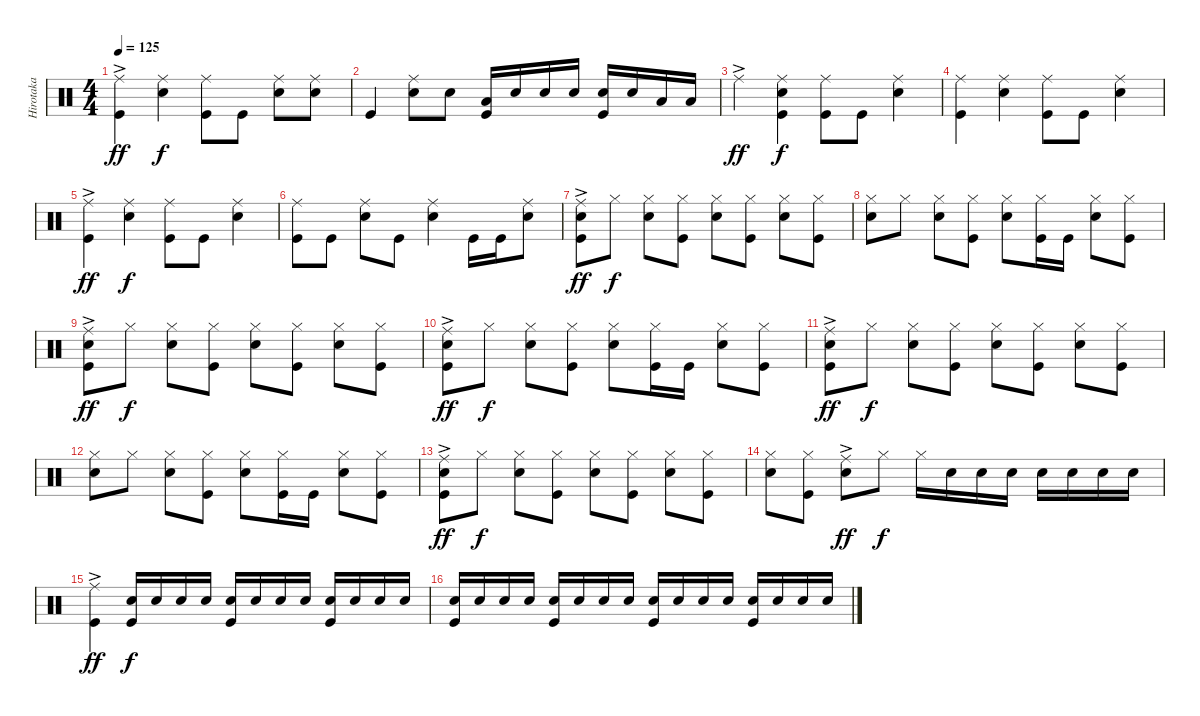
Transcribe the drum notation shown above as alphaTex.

\track ("Hirotaka" "Hirotaka") {instrument percussion}
\staff {score}
\articulation defaults
\ts (4 4)
\tempo 125
\clef neutral
\ks c
("Ride (middle)"{ac} "Kick (hit)").4{dy ff} ("Ride (middle)" "Snare (hit) 2").4{dy f} ("Ride (middle)" "Kick (hit)").8 "Kick (hit)".8 ("Ride (middle)" "Snare (hit) 2").8 ("Ride (middle)" "Snare (hit) 2").8 |
"Kick (hit)".4 ("Ride (middle)" "Snare (hit) 2").8 "Snare (hit) 2".8 ("Low Tom (hit)" "Kick (hit)").16 "Snare (hit) 2".16 "Snare (hit) 2".16 "Snare (hit) 2".16 ("Snare (hit) 2" "Kick (hit)").16 "Snare (hit) 2".16 "Low Tom (hit)".16 "Low Tom (hit)".16 |
"Ride (middle)"{ac}.4{dy ff} ("Ride (middle)" "Snare (hit) 2" "Kick (hit)").4{dy f} ("Ride (middle)" "Kick (hit)").8 "Kick (hit)".8 ("Ride (middle)" "Snare (hit) 2").4 |
("Ride (middle)" "Kick (hit)").4 ("Ride (middle)" "Snare (hit) 2").4 ("Ride (middle)" "Kick (hit)").8 "Kick (hit)".8 ("Ride (middle)" "Snare (hit) 2").4 |
("Ride (middle)"{ac} "Kick (hit)").4{dy ff} ("Ride (middle)" "Snare (hit) 2").4{dy f} ("Ride (middle)" "Kick (hit)").8 "Kick (hit)".8 ("Ride (middle)" "Snare (hit) 2").4 |
("Ride (middle)" "Kick (hit)").8 "Kick (hit)".8 ("Ride (middle)" "Snare (hit) 2").8 "Kick (hit)".8 ("Ride (middle)" "Snare (hit) 2").4 "Kick (hit)".16 "Kick (hit)".16 ("Ride (middle)" "Snare (hit) 2").8 |
("Ride (middle)"{ac} "Snare (hit) 2" "Kick (hit)").8{dy ff} "Hi-Hat (closed)".8{dy f} ("Hi-Hat (closed)" "Snare (hit) 2").8 ("Hi-Hat (closed)" "Kick (hit)").8 ("Hi-Hat (closed)" "Snare (hit) 2").8 ("Hi-Hat (closed)" "Kick (hit)").8 ("Hi-Hat (closed)" "Snare (hit) 2").8 ("Hi-Hat (closed)" "Kick (hit)").8 |
("Hi-Hat (closed)" "Snare (hit) 2").8 "Hi-Hat (closed)".8 ("Hi-Hat (closed)" "Snare (hit) 2").8 ("Hi-Hat (closed)" "Kick (hit)").8 ("Hi-Hat (closed)" "Snare (hit) 2").8 ("Hi-Hat (closed)" "Kick (hit)").16 "Kick (hit)".16 ("Hi-Hat (closed)" "Snare (hit) 2").8 ("Hi-Hat (closed)" "Kick (hit)").8 |
("Ride (middle)"{ac} "Snare (hit) 2" "Kick (hit)").8{dy ff} "Hi-Hat (closed)".8{dy f} ("Hi-Hat (closed)" "Snare (hit) 2").8 ("Hi-Hat (closed)" "Kick (hit)").8 ("Hi-Hat (closed)" "Snare (hit) 2").8 ("Hi-Hat (closed)" "Kick (hit)").8 ("Hi-Hat (closed)" "Snare (hit) 2").8 ("Hi-Hat (closed)" "Kick (hit)").8 |
("Ride (middle)"{ac} "Snare (hit) 2" "Kick (hit)").8{dy ff} "Hi-Hat (closed)".8{dy f} ("Hi-Hat (closed)" "Snare (hit) 2").8 ("Hi-Hat (closed)" "Kick (hit)").8 ("Hi-Hat (closed)" "Snare (hit) 2").8 ("Hi-Hat (closed)" "Kick (hit)").16 "Kick (hit)".16 ("Hi-Hat (closed)" "Snare (hit) 2").8 ("Hi-Hat (closed)" "Kick (hit)").8 |
("Ride (middle)"{ac} "Snare (hit) 2" "Kick (hit)").8{dy ff} "Hi-Hat (closed)".8{dy f} ("Hi-Hat (closed)" "Snare (hit) 2").8 ("Hi-Hat (closed)" "Kick (hit)").8 ("Hi-Hat (closed)" "Snare (hit) 2").8 ("Hi-Hat (closed)" "Kick (hit)").8 ("Hi-Hat (closed)" "Snare (hit) 2").8 ("Hi-Hat (closed)" "Kick (hit)").8 |
("Hi-Hat (closed)" "Snare (hit) 2").8 "Hi-Hat (closed)".8 ("Hi-Hat (closed)" "Snare (hit) 2").8 ("Hi-Hat (closed)" "Kick (hit)").8 ("Hi-Hat (closed)" "Snare (hit) 2").8 ("Hi-Hat (closed)" "Kick (hit)").16 "Kick (hit)".16 ("Hi-Hat (closed)" "Snare (hit) 2").8 ("Hi-Hat (closed)" "Kick (hit)").8 |
("Ride (middle)"{ac} "Snare (hit) 2" "Kick (hit)").8{dy ff} "Hi-Hat (closed)".8{dy f} ("Hi-Hat (closed)" "Snare (hit) 2").8 ("Hi-Hat (closed)" "Kick (hit)").8 ("Hi-Hat (closed)" "Snare (hit) 2").8 ("Hi-Hat (closed)" "Kick (hit)").8 ("Hi-Hat (closed)" "Snare (hit) 2").8 ("Hi-Hat (closed)" "Kick (hit)").8 |
("Hi-Hat (closed)" "Snare (hit) 2").8 ("Hi-Hat (closed)" "Kick (hit)").8 ("Ride (middle)"{ac} "Snare (hit) 2").8{dy ff} "Hi-Hat (closed)".8{dy f} "Hi-Hat (closed)".16 "Snare (hit) 2".16 "Snare (hit) 2".16 "Snare (hit) 2".16 "Snare (hit) 2".16 "Snare (hit) 2".16 "Snare (hit) 2".16 "Snare (hit) 2".16 |
("Ride (middle)"{ac} "Kick (hit)").4{dy ff} ("Snare (hit) 2" "Kick (hit)").16{dy f} "Snare (hit) 2".16 "Snare (hit) 2".16 "Snare (hit) 2".16 ("Snare (hit) 2" "Kick (hit)").16 "Snare (hit) 2".16 "Snare (hit) 2".16 "Snare (hit) 2".16 ("Snare (hit) 2" "Kick (hit)").16 "Snare (hit) 2".16 "Snare (hit) 2".16 "Snare (hit) 2".16 |
("Snare (hit) 2" "Kick (hit)").16 "Snare (hit) 2".16 "Snare (hit) 2".16 "Snare (hit) 2".16 ("Snare (hit) 2" "Kick (hit)").16 "Snare (hit) 2".16 "Snare (hit) 2".16 "Snare (hit) 2".16 ("Snare (hit) 2" "Kick (hit)").16 "Snare (hit) 2".16 "Snare (hit) 2".16 "Snare (hit) 2".16 ("Snare (hit) 2" "Kick (hit)").16 "Snare (hit) 2".16 "Snare (hit) 2".16 "Snare (hit) 2".16
